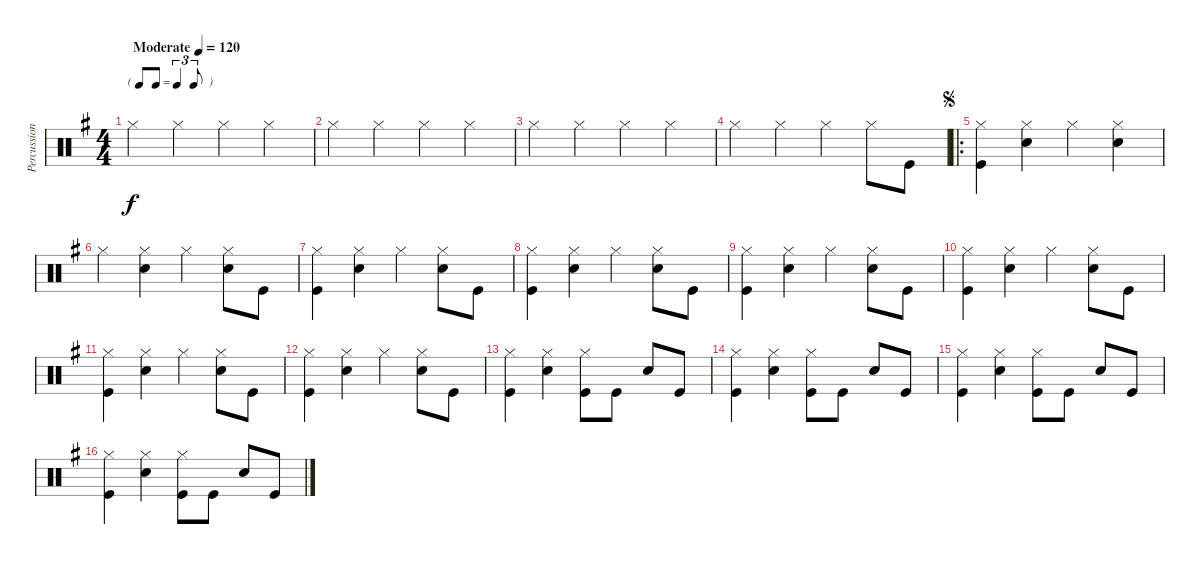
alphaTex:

\track ("Percussion" "Percussion") {instrument percussion}
\staff {score}
\articulation defaults
\ts (4 4)
\tf triplet8th
\tempo (120 "Moderate")
\clef neutral
\ks g "Hi-Hat (closed)".4{dy f} "Hi-Hat (closed)".4 "Hi-Hat (closed)".4 "Hi-Hat (closed)".4
|
"Hi-Hat (closed)".4 "Hi-Hat (closed)".4 "Hi-Hat (closed)".4 "Hi-Hat (closed)".4 |
"Hi-Hat (closed)".4 "Hi-Hat (closed)".4 "Hi-Hat (closed)".4 "Hi-Hat (closed)".4 |
"Hi-Hat (closed)".4 "Hi-Hat (closed)".4 "Hi-Hat (closed)".4 "Hi-Hat (closed)".8 "Kick (hit)".8 |
\ro
\jump segno
("Hi-Hat (closed)" "Kick (hit)").4 ("Hi-Hat (closed)" "Snare (hit) 2").4 "Hi-Hat (closed)".4 ("Hi-Hat (closed)" "Snare (hit) 2").4 |
"Hi-Hat (closed)".4 ("Hi-Hat (closed)" "Snare (hit) 2").4 "Hi-Hat (closed)".4 ("Hi-Hat (closed)" "Snare (hit) 2").8 "Kick (hit)".8 |
("Hi-Hat (closed)" "Kick (hit)").4 ("Hi-Hat (closed)" "Snare (hit) 2").4 "Hi-Hat (closed)".4 ("Hi-Hat (closed)" "Snare (hit) 2").8 "Kick (hit)".8 |
("Hi-Hat (closed)" "Kick (hit)").4 ("Hi-Hat (closed)" "Snare (hit) 2").4 "Hi-Hat (closed)".4 ("Hi-Hat (closed)" "Snare (hit) 2").8 "Kick (hit)".8 |
("Hi-Hat (closed)" "Kick (hit)").4 ("Hi-Hat (closed)" "Snare (hit) 2").4 "Hi-Hat (closed)".4 ("Hi-Hat (closed)" "Snare (hit) 2").8 "Kick (hit)".8 |
("Hi-Hat (closed)" "Kick (hit)").4 ("Hi-Hat (closed)" "Snare (hit) 2").4 "Hi-Hat (closed)".4 ("Hi-Hat (closed)" "Snare (hit) 2").8 "Kick (hit)".8 |
("Hi-Hat (closed)" "Kick (hit)").4 ("Hi-Hat (closed)" "Snare (hit) 2").4 "Hi-Hat (closed)".4 ("Hi-Hat (closed)" "Snare (hit) 2").8 "Kick (hit)".8 |
("Hi-Hat (closed)" "Kick (hit)").4 ("Hi-Hat (closed)" "Snare (hit) 2").4 "Hi-Hat (closed)".4 ("Hi-Hat (closed)" "Snare (hit) 2").8 "Kick (hit)".8 |
("Hi-Hat (closed)" "Kick (hit)").4 ("Hi-Hat (closed)" "Snare (hit) 2").4 ("Hi-Hat (closed)" "Kick (hit)").8 "Kick (hit)".8 "Snare (hit) 2".8 "Kick (hit)".8 |
("Hi-Hat (closed)" "Kick (hit)").4 ("Hi-Hat (closed)" "Snare (hit) 2").4 ("Hi-Hat (closed)" "Kick (hit)").8 "Kick (hit)".8 "Snare (hit) 2".8 "Kick (hit)".8 |
("Hi-Hat (closed)" "Kick (hit)").4 ("Hi-Hat (closed)" "Snare (hit) 2").4 ("Hi-Hat (closed)" "Kick (hit)").8 "Kick (hit)".8 "Snare (hit) 2".8 "Kick (hit)".8 |
("Hi-Hat (closed)" "Kick (hit)").4 ("Hi-Hat (closed)" "Snare (hit) 2").4 ("Hi-Hat (closed)" "Kick (hit)").8 "Kick (hit)".8 "Snare (hit) 2".8 "Kick (hit)".8
